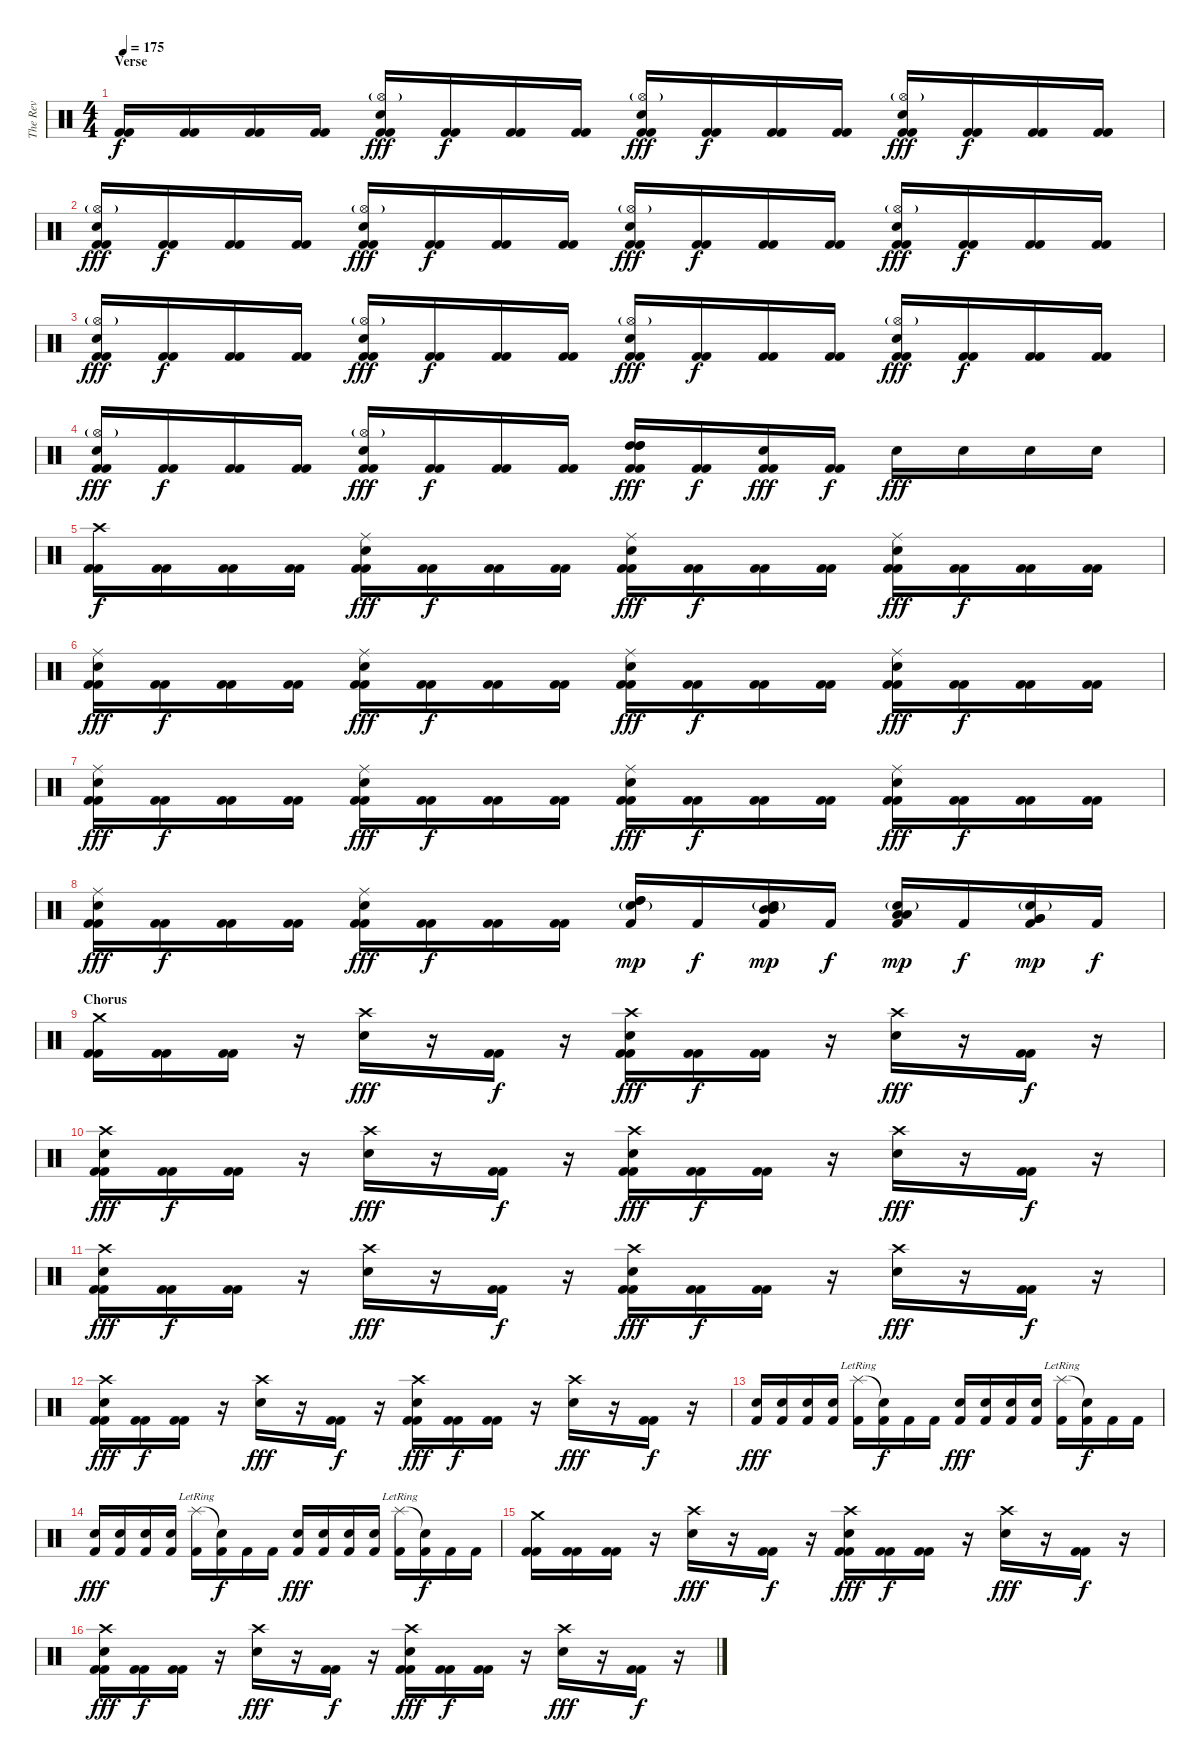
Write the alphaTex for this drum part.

\track ("The Rev" "The Rev") {instrument percussion}
\staff {score}
\articulation defaults
\ts (4 4)
\section ("" "Verse")
\tempo 175
\clef neutral
\ks c
("Kick (hit) 2" "Kick (hit) 2").16{dy f} ("Kick (hit) 2" "Kick (hit) 2").16 ("Kick (hit) 2" "Kick (hit) 2").16 ("Kick (hit) 2" "Kick (hit) 2").16 ("Hi-Hat (open)"{g} "Electric Snare (hit)" "Kick (hit) 2" "Kick (hit) 2").16{dy fff} ("Kick (hit) 2" "Kick (hit) 2").16{dy f} ("Kick (hit) 2" "Kick (hit) 2").16 ("Kick (hit) 2" "Kick (hit) 2").16 ("Hi-Hat (open)"{g} "Electric Snare (hit)" "Kick (hit) 2" "Kick (hit) 2").16{dy fff} ("Kick (hit) 2" "Kick (hit) 2").16{dy f} ("Kick (hit) 2" "Kick (hit) 2").16 ("Kick (hit) 2" "Kick (hit) 2").16 ("Hi-Hat (open)"{g} "Electric Snare (hit)" "Kick (hit) 2" "Kick (hit) 2").16{dy fff} ("Kick (hit) 2" "Kick (hit) 2").16{dy f} ("Kick (hit) 2" "Kick (hit) 2").16 ("Kick (hit) 2" "Kick (hit) 2").16 |
("Hi-Hat (open)"{g} "Electric Snare (hit)" "Kick (hit) 2" "Kick (hit) 2").16{dy fff} ("Kick (hit) 2" "Kick (hit) 2").16{dy f} ("Kick (hit) 2" "Kick (hit) 2").16 ("Kick (hit) 2" "Kick (hit) 2").16 ("Hi-Hat (open)"{g} "Electric Snare (hit)" "Kick (hit) 2" "Kick (hit) 2").16{dy fff} ("Kick (hit) 2" "Kick (hit) 2").16{dy f} ("Kick (hit) 2" "Kick (hit) 2").16 ("Kick (hit) 2" "Kick (hit) 2").16 ("Hi-Hat (open)"{g} "Electric Snare (hit)" "Kick (hit) 2" "Kick (hit) 2").16{dy fff} ("Kick (hit) 2" "Kick (hit) 2").16{dy f} ("Kick (hit) 2" "Kick (hit) 2").16 ("Kick (hit) 2" "Kick (hit) 2").16 ("Hi-Hat (open)"{g} "Electric Snare (hit)" "Kick (hit) 2" "Kick (hit) 2").16{dy fff} ("Kick (hit) 2" "Kick (hit) 2").16{dy f} ("Kick (hit) 2" "Kick (hit) 2").16 ("Kick (hit) 2" "Kick (hit) 2").16 |
("Hi-Hat (open)"{g} "Electric Snare (hit)" "Kick (hit) 2" "Kick (hit) 2").16{dy fff} ("Kick (hit) 2" "Kick (hit) 2").16{dy f} ("Kick (hit) 2" "Kick (hit) 2").16 ("Kick (hit) 2" "Kick (hit) 2").16 ("Hi-Hat (open)"{g} "Electric Snare (hit)" "Kick (hit) 2" "Kick (hit) 2").16{dy fff} ("Kick (hit) 2" "Kick (hit) 2").16{dy f} ("Kick (hit) 2" "Kick (hit) 2").16 ("Kick (hit) 2" "Kick (hit) 2").16 ("Hi-Hat (open)"{g} "Electric Snare (hit)" "Kick (hit) 2" "Kick (hit) 2").16{dy fff} ("Kick (hit) 2" "Kick (hit) 2").16{dy f} ("Kick (hit) 2" "Kick (hit) 2").16 ("Kick (hit) 2" "Kick (hit) 2").16 ("Hi-Hat (open)"{g} "Electric Snare (hit)" "Kick (hit) 2" "Kick (hit) 2").16{dy fff} ("Kick (hit) 2" "Kick (hit) 2").16{dy f} ("Kick (hit) 2" "Kick (hit) 2").16 ("Kick (hit) 2" "Kick (hit) 2").16 |
("Hi-Hat (open)"{g} "Electric Snare (hit)" "Kick (hit) 2" "Kick (hit) 2").16{dy fff} ("Kick (hit) 2" "Kick (hit) 2").16{dy f} ("Kick (hit) 2" "Kick (hit) 2").16 ("Kick (hit) 2" "Kick (hit) 2").16 ("Hi-Hat (open)"{g} "Electric Snare (hit)" "Kick (hit) 2" "Kick (hit) 2").16{dy fff} ("Kick (hit) 2" "Kick (hit) 2").16{dy f} ("Kick (hit) 2" "Kick (hit) 2").16 ("Kick (hit) 2" "Kick (hit) 2").16 ("High Tom (hit)" "High Tom (hit)" "High Tom (hit)" "Kick (hit) 2" "Kick (hit) 2").16{dy fff} ("Kick (hit) 2" "Kick (hit) 2").16{dy f} ("Electric Snare (hit)" "Kick (hit) 2" "Kick (hit) 2").16{dy fff} ("Kick (hit) 2" "Kick (hit) 2").16{dy f} "Electric Snare (hit)".16{dy fff} "Electric Snare (hit)".16 "Electric Snare (hit)".16 "Electric Snare (hit)".16 |
("Crash high (hit)" "Kick (hit) 2" "Kick (hit) 2").16{dy f} ("Kick (hit) 2" "Kick (hit) 2").16 ("Kick (hit) 2" "Kick (hit) 2").16 ("Kick (hit) 2" "Kick (hit) 2").16 ("Ride (middle)" "Electric Snare (hit)" "Kick (hit) 2" "Kick (hit) 2").16{dy fff} ("Kick (hit) 2" "Kick (hit) 2").16{dy f} ("Kick (hit) 2" "Kick (hit) 2").16 ("Kick (hit) 2" "Kick (hit) 2").16 ("Ride (middle)" "Electric Snare (hit)" "Kick (hit) 2" "Kick (hit) 2").16{dy fff} ("Kick (hit) 2" "Kick (hit) 2").16{dy f} ("Kick (hit) 2" "Kick (hit) 2").16 ("Kick (hit) 2" "Kick (hit) 2").16 ("Ride (middle)" "Electric Snare (hit)" "Kick (hit) 2" "Kick (hit) 2").16{dy fff} ("Kick (hit) 2" "Kick (hit) 2").16{dy f} ("Kick (hit) 2" "Kick (hit) 2").16 ("Kick (hit) 2" "Kick (hit) 2").16 |
("Ride (middle)" "Electric Snare (hit)" "Kick (hit) 2" "Kick (hit) 2").16{dy fff} ("Kick (hit) 2" "Kick (hit) 2").16{dy f} ("Kick (hit) 2" "Kick (hit) 2").16 ("Kick (hit) 2" "Kick (hit) 2").16 ("Ride (middle)" "Electric Snare (hit)" "Kick (hit) 2" "Kick (hit) 2").16{dy fff} ("Kick (hit) 2" "Kick (hit) 2").16{dy f} ("Kick (hit) 2" "Kick (hit) 2").16 ("Kick (hit) 2" "Kick (hit) 2").16 ("Ride (middle)" "Electric Snare (hit)" "Kick (hit) 2" "Kick (hit) 2").16{dy fff} ("Kick (hit) 2" "Kick (hit) 2").16{dy f} ("Kick (hit) 2" "Kick (hit) 2").16 ("Kick (hit) 2" "Kick (hit) 2").16 ("Ride (middle)" "Electric Snare (hit)" "Kick (hit) 2" "Kick (hit) 2").16{dy fff} ("Kick (hit) 2" "Kick (hit) 2").16{dy f} ("Kick (hit) 2" "Kick (hit) 2").16 ("Kick (hit) 2" "Kick (hit) 2").16 |
("Ride (middle)" "Electric Snare (hit)" "Kick (hit) 2" "Kick (hit) 2").16{dy fff} ("Kick (hit) 2" "Kick (hit) 2").16{dy f} ("Kick (hit) 2" "Kick (hit) 2").16 ("Kick (hit) 2" "Kick (hit) 2").16 ("Ride (middle)" "Electric Snare (hit)" "Kick (hit) 2" "Kick (hit) 2").16{dy fff} ("Kick (hit) 2" "Kick (hit) 2").16{dy f} ("Kick (hit) 2" "Kick (hit) 2").16 ("Kick (hit) 2" "Kick (hit) 2").16 ("Ride (middle)" "Electric Snare (hit)" "Kick (hit) 2" "Kick (hit) 2").16{dy fff} ("Kick (hit) 2" "Kick (hit) 2").16{dy f} ("Kick (hit) 2" "Kick (hit) 2").16 ("Kick (hit) 2" "Kick (hit) 2").16 ("Ride (middle)" "Electric Snare (hit)" "Kick (hit) 2" "Kick (hit) 2").16{dy fff} ("Kick (hit) 2" "Kick (hit) 2").16{dy f} ("Kick (hit) 2" "Kick (hit) 2").16 ("Kick (hit) 2" "Kick (hit) 2").16 |
("Ride (middle)" "Electric Snare (hit)" "Kick (hit) 2" "Kick (hit) 2").16{dy fff} ("Kick (hit) 2" "Kick (hit) 2").16{dy f} ("Kick (hit) 2" "Kick (hit) 2").16 ("Kick (hit) 2" "Kick (hit) 2").16 ("Ride (middle)" "Electric Snare (hit)" "Kick (hit) 2" "Kick (hit) 2").16{dy fff} ("Kick (hit) 2" "Kick (hit) 2").16{dy f} ("Kick (hit) 2" "Kick (hit) 2").16 ("Kick (hit) 2" "Kick (hit) 2").16 ("High Tom (hit)" "High Tom (hit)" "Electric Snare (hit)"{g} "Kick (hit) 2").16{dy mp} "Kick (hit) 2".16{dy f} ("Mid Tom (hit)" "Mid Tom (hit)" "Electric Snare (hit)"{g} "Kick (hit) 2").16{dy mp} "Kick (hit) 2".16{dy f} ("Low Tom (hit)" "Low Tom (hit)" "Electric Snare (hit)"{g} "Kick (hit) 2").16{dy mp} "Kick (hit) 2".16{dy f} ("Very Low Tom (hit)" "Very Low Tom (hit)" "Electric Snare (hit)"{g} "Kick (hit) 2").16{dy mp} "Kick (hit) 2".16{dy f} |
\section ("" "Chorus")
("Crash medium (hit)" "Kick (hit) 2" "Kick (hit) 2").16 ("Kick (hit) 2" "Kick (hit) 2").16 ("Kick (hit) 2" "Kick (hit) 2").16 r.16 ("Crash high (hit)" "Electric Snare (hit)").16{dy fff} r.16 ("Kick (hit) 2" "Kick (hit) 2").16{dy f} r.16 ("Crash high (hit)" "Electric Snare (hit)" "Kick (hit) 2" "Kick (hit) 2").16{dy fff} ("Kick (hit) 2" "Kick (hit) 2").16{dy f} ("Kick (hit) 2" "Kick (hit) 2").16 r.16 ("Crash high (hit)" "Electric Snare (hit)").16{dy fff} r.16 ("Kick (hit) 2" "Kick (hit) 2").16{dy f} r.16 |
("Crash high (hit)" "Electric Snare (hit)" "Kick (hit) 2" "Kick (hit) 2").16{dy fff} ("Kick (hit) 2" "Kick (hit) 2").16{dy f} ("Kick (hit) 2" "Kick (hit) 2").16 r.16 ("Crash high (hit)" "Electric Snare (hit)").16{dy fff} r.16 ("Kick (hit) 2" "Kick (hit) 2").16{dy f} r.16 ("Crash high (hit)" "Electric Snare (hit)" "Kick (hit) 2" "Kick (hit) 2").16{dy fff} ("Kick (hit) 2" "Kick (hit) 2").16{dy f} ("Kick (hit) 2" "Kick (hit) 2").16 r.16 ("Crash high (hit)" "Electric Snare (hit)").16{dy fff} r.16 ("Kick (hit) 2" "Kick (hit) 2").16{dy f} r.16 |
("Crash high (hit)" "Electric Snare (hit)" "Kick (hit) 2" "Kick (hit) 2").16{dy fff} ("Kick (hit) 2" "Kick (hit) 2").16{dy f} ("Kick (hit) 2" "Kick (hit) 2").16 r.16 ("Crash high (hit)" "Electric Snare (hit)").16{dy fff} r.16 ("Kick (hit) 2" "Kick (hit) 2").16{dy f} r.16 ("Crash high (hit)" "Electric Snare (hit)" "Kick (hit) 2" "Kick (hit) 2").16{dy fff} ("Kick (hit) 2" "Kick (hit) 2").16{dy f} ("Kick (hit) 2" "Kick (hit) 2").16 r.16 ("Crash high (hit)" "Electric Snare (hit)").16{dy fff} r.16 ("Kick (hit) 2" "Kick (hit) 2").16{dy f} r.16 |
("Crash high (hit)" "Electric Snare (hit)" "Kick (hit) 2" "Kick (hit) 2").16{dy fff} ("Kick (hit) 2" "Kick (hit) 2").16{dy f} ("Kick (hit) 2" "Kick (hit) 2").16 r.16 ("Crash high (hit)" "Electric Snare (hit)").16{dy fff} r.16 ("Kick (hit) 2" "Kick (hit) 2").16{dy f} r.16 ("Crash high (hit)" "Electric Snare (hit)" "Kick (hit) 2" "Kick (hit) 2").16{dy fff} ("Kick (hit) 2" "Kick (hit) 2").16{dy f} ("Kick (hit) 2" "Kick (hit) 2").16 r.16 ("Crash high (hit)" "Electric Snare (hit)").16{dy fff} r.16 ("Kick (hit) 2" "Kick (hit) 2").16{dy f} r.16 |
("Electric Snare (hit)" "Kick (hit) 2").16{dy fff} ("Electric Snare (hit)" "Kick (hit) 2").16 ("Electric Snare (hit)" "Kick (hit) 2").16 ("Electric Snare (hit)" "Kick (hit) 2").16 ("Splash (hit)"{lr} "Kick (hit) 2").16 ("Snare (hit)"{t} "Kick (hit) 2").16{dy f} "Kick (hit) 2".16 "Kick (hit) 2".16 ("Electric Snare (hit)" "Kick (hit) 2").16{dy fff} ("Electric Snare (hit)" "Kick (hit) 2").16 ("Electric Snare (hit)" "Kick (hit) 2").16 ("Electric Snare (hit)" "Kick (hit) 2").16 ("Splash (hit)"{lr} "Kick (hit) 2").16 ("Snare (hit)"{t} "Kick (hit) 2").16{dy f} "Kick (hit) 2".16 "Kick (hit) 2".16 |
("Electric Snare (hit)" "Kick (hit) 2").16{dy fff} ("Electric Snare (hit)" "Kick (hit) 2").16 ("Electric Snare (hit)" "Kick (hit) 2").16 ("Electric Snare (hit)" "Kick (hit) 2").16 ("Splash (hit)"{lr} "Kick (hit) 2").16 ("Snare (hit)"{t} "Kick (hit) 2").16{dy f} "Kick (hit) 2".16 "Kick (hit) 2".16 ("Electric Snare (hit)" "Kick (hit) 2").16{dy fff} ("Electric Snare (hit)" "Kick (hit) 2").16 ("Electric Snare (hit)" "Kick (hit) 2").16 ("Electric Snare (hit)" "Kick (hit) 2").16 ("Splash (hit)"{lr} "Kick (hit) 2").16 ("Snare (hit)"{t} "Kick (hit) 2").16{dy f} "Kick (hit) 2".16 "Kick (hit) 2".16 |
("Crash medium (hit)" "Kick (hit) 2" "Kick (hit) 2").16 ("Kick (hit) 2" "Kick (hit) 2").16 ("Kick (hit) 2" "Kick (hit) 2").16 r.16 ("Crash high (hit)" "Electric Snare (hit)").16{dy fff} r.16 ("Kick (hit) 2" "Kick (hit) 2").16{dy f} r.16 ("Crash high (hit)" "Electric Snare (hit)" "Kick (hit) 2" "Kick (hit) 2").16{dy fff} ("Kick (hit) 2" "Kick (hit) 2").16{dy f} ("Kick (hit) 2" "Kick (hit) 2").16 r.16 ("Crash high (hit)" "Electric Snare (hit)").16{dy fff} r.16 ("Kick (hit) 2" "Kick (hit) 2").16{dy f} r.16 |
("Crash high (hit)" "Electric Snare (hit)" "Kick (hit) 2" "Kick (hit) 2").16{dy fff} ("Kick (hit) 2" "Kick (hit) 2").16{dy f} ("Kick (hit) 2" "Kick (hit) 2").16 r.16 ("Crash high (hit)" "Electric Snare (hit)").16{dy fff} r.16 ("Kick (hit) 2" "Kick (hit) 2").16{dy f} r.16 ("Crash high (hit)" "Electric Snare (hit)" "Kick (hit) 2" "Kick (hit) 2").16{dy fff} ("Kick (hit) 2" "Kick (hit) 2").16{dy f} ("Kick (hit) 2" "Kick (hit) 2").16 r.16 ("Crash high (hit)" "Electric Snare (hit)").16{dy fff} r.16 ("Kick (hit) 2" "Kick (hit) 2").16{dy f} r.16
